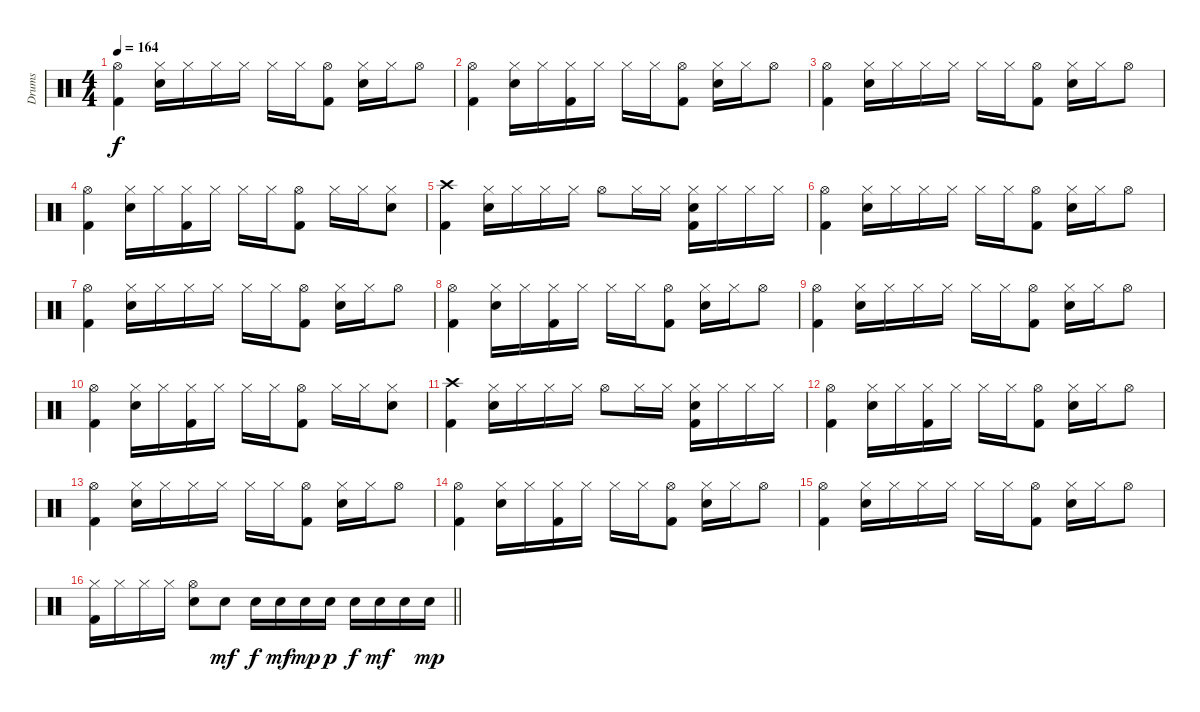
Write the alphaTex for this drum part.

\track ("Drums" "Drums") {instrument percussion}
\staff {score}
\articulation defaults
\ts (4 4)
\tempo 164
\clef neutral
\ks c
("Hi-Hat (open)" "Kick (hit) 2").4{dy f} ("Hi-Hat (closed)" "Electric Snare (hit)").16 "Hi-Hat (closed)".16 "Hi-Hat (closed)".16 "Hi-Hat (closed)".16 "Hi-Hat (closed)".16 "Hi-Hat (closed)".16 ("Hi-Hat (open)" "Kick (hit) 2").8 ("Hi-Hat (closed)" "Electric Snare (hit)").16 "Hi-Hat (closed)".16 "Hi-Hat (open)".8 |
("Hi-Hat (open)" "Kick (hit) 2").4 ("Hi-Hat (closed)" "Electric Snare (hit)").16 "Hi-Hat (closed)".16 ("Hi-Hat (closed)" "Kick (hit) 2").16 "Hi-Hat (closed)".16 "Hi-Hat (closed)".16 "Hi-Hat (closed)".16 ("Hi-Hat (open)" "Kick (hit) 2").8 ("Hi-Hat (closed)" "Electric Snare (hit)").16 "Hi-Hat (closed)".16 "Hi-Hat (open)".8 |
("Hi-Hat (open)" "Kick (hit) 2").4 ("Hi-Hat (closed)" "Electric Snare (hit)").16 "Hi-Hat (closed)".16 "Hi-Hat (closed)".16 "Hi-Hat (closed)".16 "Hi-Hat (closed)".16 "Hi-Hat (closed)".16 ("Hi-Hat (open)" "Kick (hit) 2").8 ("Hi-Hat (closed)" "Electric Snare (hit)").16 "Hi-Hat (closed)".16 "Hi-Hat (open)".8 |
("Hi-Hat (open)" "Kick (hit) 2").4 ("Hi-Hat (closed)" "Electric Snare (hit)").16 "Hi-Hat (closed)".16 ("Hi-Hat (closed)" "Kick (hit) 2").16 "Hi-Hat (closed)".16 "Hi-Hat (closed)".16 "Hi-Hat (closed)".16 ("Hi-Hat (open)" "Kick (hit) 2").8 "Hi-Hat (closed)".16 "Hi-Hat (closed)".16 ("Hi-Hat (closed)" "Electric Snare (hit)").8 |
("Crash high (hit)" "Kick (hit) 2").4 ("Hi-Hat (closed)" "Electric Snare (hit)").16 "Hi-Hat (closed)".16 "Hi-Hat (closed)".16 "Hi-Hat (closed)".16 "Hi-Hat (open)".8 "Hi-Hat (closed)".16 "Hi-Hat (closed)".16 ("Hi-Hat (closed)" "Electric Snare (hit)" "Kick (hit) 2").16 "Hi-Hat (closed)".16 "Hi-Hat (closed)".16 "Hi-Hat (closed)".16 |
("Hi-Hat (open)" "Kick (hit) 2").4 ("Hi-Hat (closed)" "Electric Snare (hit)").16 "Hi-Hat (closed)".16 "Hi-Hat (closed)".16 "Hi-Hat (closed)".16 "Hi-Hat (closed)".16 "Hi-Hat (closed)".16 ("Hi-Hat (open)" "Kick (hit) 2").8 ("Hi-Hat (closed)" "Electric Snare (hit)").16 "Hi-Hat (closed)".16 "Hi-Hat (open)".8 |
("Hi-Hat (open)" "Kick (hit) 2").4 ("Hi-Hat (closed)" "Electric Snare (hit)").16 "Hi-Hat (closed)".16 "Hi-Hat (closed)".16 "Hi-Hat (closed)".16 "Hi-Hat (closed)".16 "Hi-Hat (closed)".16 ("Hi-Hat (open)" "Kick (hit) 2").8 ("Hi-Hat (closed)" "Electric Snare (hit)").16 "Hi-Hat (closed)".16 "Hi-Hat (open)".8 |
("Hi-Hat (open)" "Kick (hit) 2").4 ("Hi-Hat (closed)" "Electric Snare (hit)").16 "Hi-Hat (closed)".16 ("Hi-Hat (closed)" "Kick (hit) 2").16 "Hi-Hat (closed)".16 "Hi-Hat (closed)".16 "Hi-Hat (closed)".16 ("Hi-Hat (open)" "Kick (hit) 2").8 ("Hi-Hat (closed)" "Electric Snare (hit)").16 "Hi-Hat (closed)".16 "Hi-Hat (open)".8 |
("Hi-Hat (open)" "Kick (hit) 2").4 ("Hi-Hat (closed)" "Electric Snare (hit)").16 "Hi-Hat (closed)".16 "Hi-Hat (closed)".16 "Hi-Hat (closed)".16 "Hi-Hat (closed)".16 "Hi-Hat (closed)".16 ("Hi-Hat (open)" "Kick (hit) 2").8 ("Hi-Hat (closed)" "Electric Snare (hit)").16 "Hi-Hat (closed)".16 "Hi-Hat (open)".8 |
("Hi-Hat (open)" "Kick (hit) 2").4 ("Hi-Hat (closed)" "Electric Snare (hit)").16 "Hi-Hat (closed)".16 ("Hi-Hat (closed)" "Kick (hit) 2").16 "Hi-Hat (closed)".16 "Hi-Hat (closed)".16 "Hi-Hat (closed)".16 ("Hi-Hat (open)" "Kick (hit) 2").8 "Hi-Hat (closed)".16 "Hi-Hat (closed)".16 ("Hi-Hat (closed)" "Electric Snare (hit)").8 |
("Crash high (hit)" "Kick (hit) 2").4 ("Hi-Hat (closed)" "Electric Snare (hit)").16 "Hi-Hat (closed)".16 "Hi-Hat (closed)".16 "Hi-Hat (closed)".16 "Hi-Hat (open)".8 "Hi-Hat (closed)".16 "Hi-Hat (closed)".16 ("Hi-Hat (closed)" "Electric Snare (hit)" "Kick (hit) 2").16 "Hi-Hat (closed)".16 "Hi-Hat (closed)".16 "Hi-Hat (closed)".16 |
("Hi-Hat (open)" "Kick (hit) 2").4 ("Hi-Hat (closed)" "Electric Snare (hit)").16 "Hi-Hat (closed)".16 ("Hi-Hat (closed)" "Kick (hit) 2").16 "Hi-Hat (closed)".16 "Hi-Hat (closed)".16 "Hi-Hat (closed)".16 ("Hi-Hat (open)" "Kick (hit) 2").8 ("Hi-Hat (closed)" "Electric Snare (hit)").16 "Hi-Hat (closed)".16 "Hi-Hat (open)".8 |
("Hi-Hat (open)" "Kick (hit) 2").4 ("Hi-Hat (closed)" "Electric Snare (hit)").16 "Hi-Hat (closed)".16 "Hi-Hat (closed)".16 "Hi-Hat (closed)".16 "Hi-Hat (closed)".16 "Hi-Hat (closed)".16 ("Hi-Hat (open)" "Kick (hit) 2").8 ("Hi-Hat (closed)" "Electric Snare (hit)").16 "Hi-Hat (closed)".16 "Hi-Hat (open)".8 |
("Hi-Hat (open)" "Kick (hit) 2").4 ("Hi-Hat (closed)" "Electric Snare (hit)").16 "Hi-Hat (closed)".16 ("Hi-Hat (closed)" "Kick (hit) 2").16 "Hi-Hat (closed)".16 "Hi-Hat (closed)".16 "Hi-Hat (closed)".16 ("Hi-Hat (open)" "Kick (hit) 2").8 ("Hi-Hat (closed)" "Electric Snare (hit)").16 "Hi-Hat (closed)".16 "Hi-Hat (open)".8 |
("Hi-Hat (open)" "Kick (hit) 2").4 ("Hi-Hat (closed)" "Electric Snare (hit)").16 "Hi-Hat (closed)".16 "Hi-Hat (closed)".16 "Hi-Hat (closed)".16 "Hi-Hat (closed)".16 "Hi-Hat (closed)".16 ("Hi-Hat (open)" "Kick (hit) 2").8 ("Hi-Hat (closed)" "Electric Snare (hit)").16 "Hi-Hat (closed)".16 "Hi-Hat (open)".8 |
\barLineRight lightlight
("Hi-Hat (closed)" "Kick (hit) 2").16 "Hi-Hat (closed)".16 "Hi-Hat (closed)".16 "Hi-Hat (closed)".16 ("Hi-Hat (open)" "Electric Snare (hit)").8 "Electric Snare (hit)".8{dy mf} "Electric Snare (hit)".16{dy f} "Electric Snare (hit)".16{dy mf} "Electric Snare (hit)".16{dy mp} "Electric Snare (hit)".16{dy p} "Electric Snare (hit)".16{dy f} "Electric Snare (hit)".16{dy mf} "Electric Snare (hit)".16 "Electric Snare (hit)".16{dy mp}
